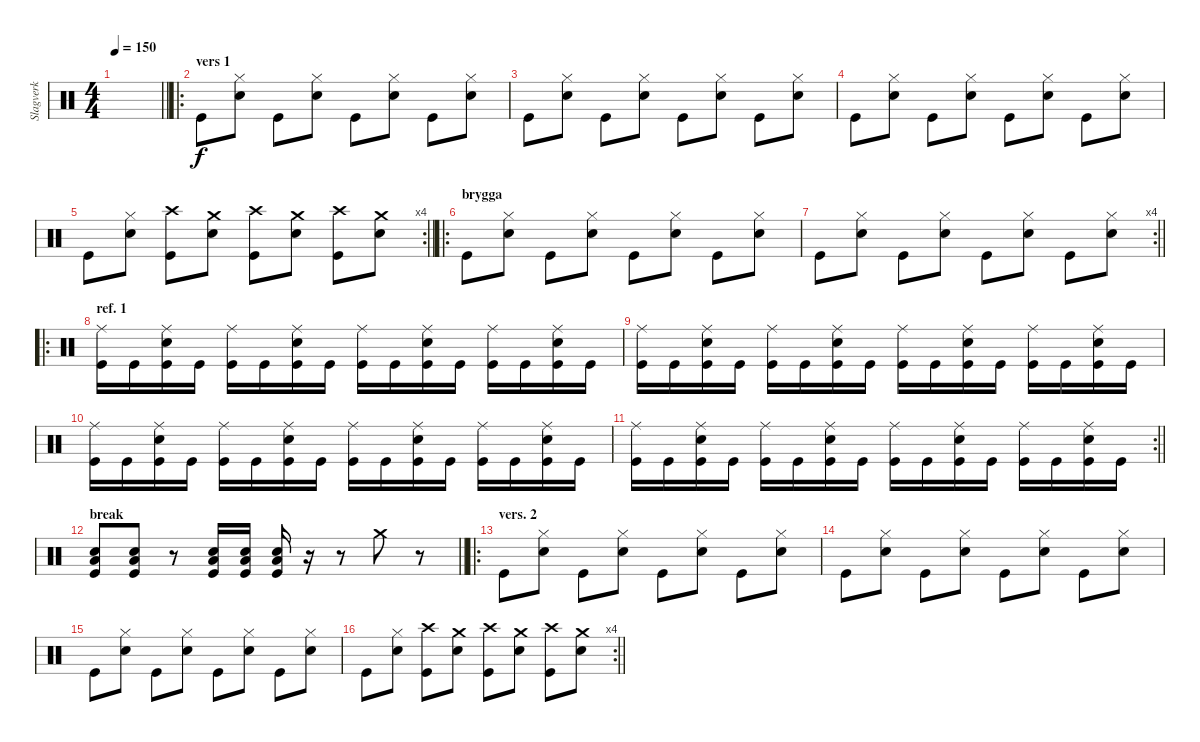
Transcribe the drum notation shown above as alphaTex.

\track ("Slagverk" "Slagverk") {instrument percussion}
\staff {score}
\articulation defaults
\ts (4 4)
\tempo 150
\clef neutral
\barLineRight lightlight
\ks c
|
\ro
\section ("" "vers 1")
"Kick (hit)".8 ("Snare (hit) 2" "Hi-Hat (closed)").8 "Kick (hit)".8 ("Snare (hit) 2" "Hi-Hat (closed)").8 "Kick (hit)".8 ("Snare (hit) 2" "Hi-Hat (closed)").8 "Kick (hit)".8 ("Snare (hit) 2" "Hi-Hat (closed)").8 |
"Kick (hit)".8 ("Snare (hit) 2" "Hi-Hat (closed)").8 "Kick (hit)".8 ("Snare (hit) 2" "Hi-Hat (closed)").8 "Kick (hit)".8 ("Snare (hit) 2" "Hi-Hat (closed)").8 "Kick (hit)".8 ("Snare (hit) 2" "Hi-Hat (closed)").8 |
"Kick (hit)".8 ("Snare (hit) 2" "Hi-Hat (closed)").8 "Kick (hit)".8 ("Snare (hit) 2" "Hi-Hat (closed)").8 "Kick (hit)".8 ("Snare (hit) 2" "Hi-Hat (closed)").8 "Kick (hit)".8 ("Snare (hit) 2" "Hi-Hat (closed)").8 |
\rc 4
\barLineRight lightlight "Kick (hit)".8
("Snare (hit) 2" "Hi-Hat (closed)").8 ("Kick (hit)" "Crash high (hit)").8 ("Snare (hit) 2" "Crash medium (hit)").8 ("Kick (hit)" "Crash high (hit)").8 ("Snare (hit) 2" "Crash medium (hit)").8 ("Kick (hit)" "Crash high (hit)").8 ("Snare (hit) 2" "Crash medium (hit)").8 |
\ro
\section ("" "brygga")
"Kick (hit)".8 ("Snare (hit) 2" "Hi-Hat (closed)").8 "Kick (hit)".8 ("Snare (hit) 2" "Hi-Hat (closed)").8 "Kick (hit)".8 ("Snare (hit) 2" "Hi-Hat (closed)").8 "Kick (hit)".8 ("Snare (hit) 2" "Hi-Hat (closed)").8 |
\rc 4
\barLineRight lightlight "Kick (hit)".8
("Snare (hit) 2" "Hi-Hat (closed)").8 "Kick (hit)".8 ("Snare (hit) 2" "Hi-Hat (closed)").8 "Kick (hit)".8 ("Snare (hit) 2" "Hi-Hat (closed)").8 "Kick (hit)".8 ("Snare (hit) 2" "Hi-Hat (closed)").8 |
\ro
\section ("" "ref. 1")
("Kick (hit)" "Ride (middle)").16 "Kick (hit)".16 ("Kick (hit)" "Snare (hit) 2" "Ride (middle)").16 "Kick (hit)".16 ("Kick (hit)" "Ride (middle)").16 "Kick (hit)".16 ("Kick (hit)" "Snare (hit) 2" "Ride (middle)").16 "Kick (hit)".16 ("Kick (hit)" "Ride (middle)").16 "Kick (hit)".16 ("Kick (hit)" "Snare (hit) 2" "Ride (middle)").16 "Kick (hit)".16 ("Kick (hit)" "Ride (middle)").16 "Kick (hit)".16 ("Kick (hit)" "Snare (hit) 2" "Ride (middle)").16 "Kick (hit)".16 |
("Kick (hit)" "Ride (middle)").16 "Kick (hit)".16 ("Kick (hit)" "Snare (hit) 2" "Ride (middle)").16 "Kick (hit)".16 ("Kick (hit)" "Ride (middle)").16 "Kick (hit)".16 ("Kick (hit)" "Snare (hit) 2" "Ride (middle)").16 "Kick (hit)".16 ("Kick (hit)" "Ride (middle)").16 "Kick (hit)".16 ("Kick (hit)" "Snare (hit) 2" "Ride (middle)").16 "Kick (hit)".16 ("Kick (hit)" "Ride (middle)").16 "Kick (hit)".16 ("Kick (hit)" "Snare (hit) 2" "Ride (middle)").16 "Kick (hit)".16 |
("Kick (hit)" "Ride (middle)").16 "Kick (hit)".16 ("Kick (hit)" "Snare (hit) 2" "Ride (middle)").16 "Kick (hit)".16 ("Kick (hit)" "Ride (middle)").16 "Kick (hit)".16 ("Kick (hit)" "Snare (hit) 2" "Ride (middle)").16 "Kick (hit)".16 ("Kick (hit)" "Ride (middle)").16 "Kick (hit)".16 ("Kick (hit)" "Snare (hit) 2" "Ride (middle)").16 "Kick (hit)".16 ("Kick (hit)" "Ride (middle)").16 "Kick (hit)".16 ("Kick (hit)" "Snare (hit) 2" "Ride (middle)").16 "Kick (hit)".16 |
\rc 2
\barLineRight lightlight
("Kick (hit)" "Ride (middle)").16 "Kick (hit)".16 ("Kick (hit)" "Snare (hit) 2" "Ride (middle)").16 "Kick (hit)".16 ("Kick (hit)" "Ride (middle)").16 "Kick (hit)".16 ("Kick (hit)" "Snare (hit) 2" "Ride (middle)").16 "Kick (hit)".16 ("Kick (hit)" "Ride (middle)").16 "Kick (hit)".16 ("Kick (hit)" "Snare (hit) 2" "Ride (middle)").16 "Kick (hit)".16 ("Kick (hit)" "Ride (middle)").16 "Kick (hit)".16 ("Kick (hit)" "Snare (hit) 2" "Ride (middle)").16 "Kick (hit)".16 |
\section ("" "break")
\barLineRight lightlight
("Kick (hit)" "Snare (hit) 2" "Low Floor Tom (hit)").8 ("Kick (hit)" "Snare (hit) 2" "Low Floor Tom (hit)").8 r.8 ("Kick (hit)" "Snare (hit) 2" "Low Floor Tom (hit)").16 ("Kick (hit)" "Snare (hit) 2" "Low Floor Tom (hit)").16 ("Kick (hit)" "Snare (hit) 2" "Low Floor Tom (hit)").16 r.16 r.8 "Crash medium (hit)".8 r.8 |
\ro
\section ("" "vers. 2")
"Kick (hit)".8 ("Snare (hit) 2" "Hi-Hat (closed)").8 "Kick (hit)".8 ("Snare (hit) 2" "Hi-Hat (closed)").8 "Kick (hit)".8 ("Snare (hit) 2" "Hi-Hat (closed)").8 "Kick (hit)".8 ("Snare (hit) 2" "Hi-Hat (closed)").8 |
"Kick (hit)".8 ("Snare (hit) 2" "Hi-Hat (closed)").8 "Kick (hit)".8 ("Snare (hit) 2" "Hi-Hat (closed)").8 "Kick (hit)".8 ("Snare (hit) 2" "Hi-Hat (closed)").8 "Kick (hit)".8 ("Snare (hit) 2" "Hi-Hat (closed)").8 |
"Kick (hit)".8 ("Snare (hit) 2" "Hi-Hat (closed)").8 "Kick (hit)".8 ("Snare (hit) 2" "Hi-Hat (closed)").8 "Kick (hit)".8 ("Snare (hit) 2" "Hi-Hat (closed)").8 "Kick (hit)".8 ("Snare (hit) 2" "Hi-Hat (closed)").8 |
\rc 4
\barLineRight lightlight "Kick (hit)".8
("Snare (hit) 2" "Hi-Hat (closed)").8 ("Kick (hit)" "Crash high (hit)").8 ("Snare (hit) 2" "Crash medium (hit)").8 ("Kick (hit)" "Crash high (hit)").8 ("Snare (hit) 2" "Crash medium (hit)").8 ("Kick (hit)" "Crash high (hit)").8 ("Snare (hit) 2" "Crash medium (hit)").8
